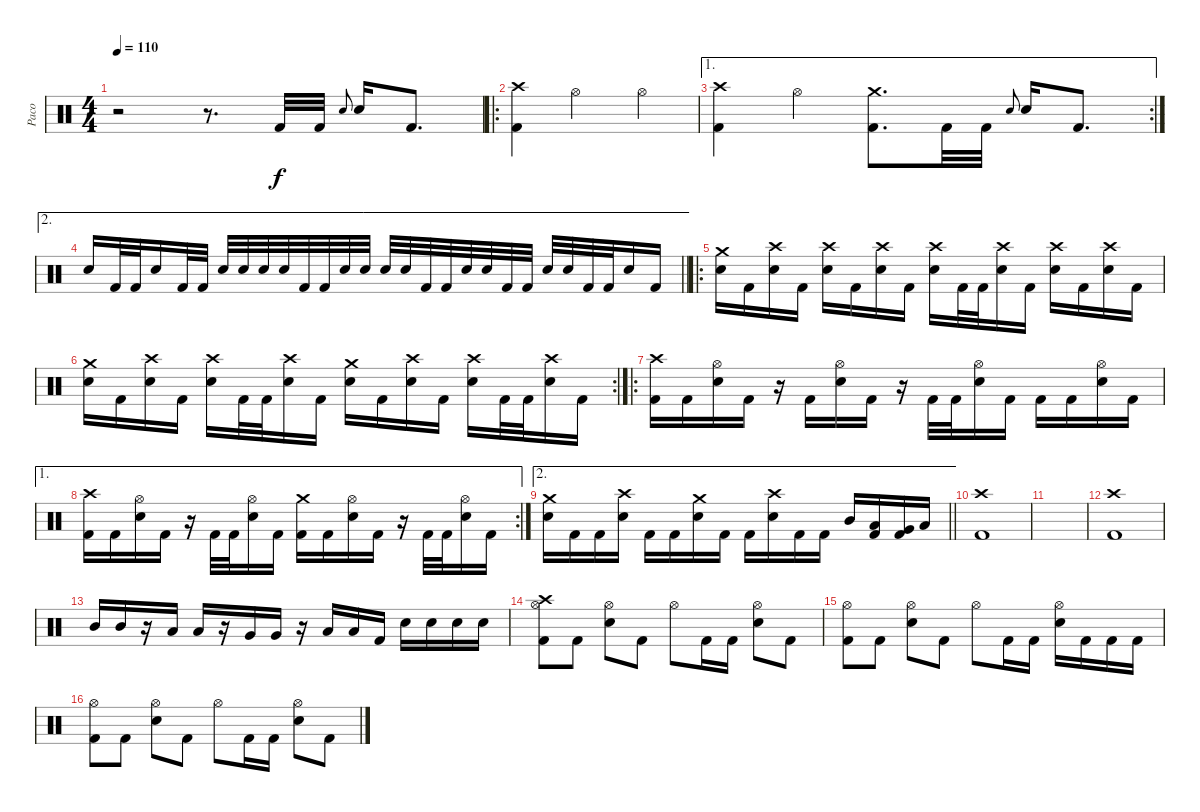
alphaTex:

\track ("Paco" "Paco") {instrument percussion}
\staff {score}
\articulation defaults
\ts (4 4)
\tempo 110
\clef neutral
\ks c
r.2{dy f} r.8{d} "Kick (hit) 2".32 "Kick (hit) 2".32 "Electric Snare (hit)".8{gr onbeat} "Electric Snare (hit)".16 "Kick (hit) 2".8{d} |
\ro
("Crash high (hit)" "Kick (hit) 2").4 "Hi-Hat (open)".2 "Hi-Hat (open)".4 |
\ae 1
\rc 2
("Crash high (hit)" "Kick (hit) 2").4 "Hi-Hat (open)".4 ("Crash medium (hit)" "Kick (hit) 2").8{d} "Kick (hit) 2".32 "Kick (hit) 2".32 "Electric Snare (hit)".8{gr onbeat} "Electric Snare (hit)".16 "Kick (hit) 2".8{d} |
\ae 2
\barLineRight lightlight "Electric Snare (hit)".16 "Kick (hit) 2".32 "Kick (hit) 2".32 "Electric Snare (hit)".16 "Kick (hit) 2".32 "Kick (hit) 2".32 "Electric Snare (hit)".32 "Electric Snare (hit)".32 "Electric Snare (hit)".32 "Electric Snare (hit)".32 "Kick (hit) 2".32 "Kick (hit) 2".32 "Electric Snare (hit)".32 "Electric Snare (hit)".32 "Electric Snare (hit)".32 "Electric Snare (hit)".32 "Kick (hit) 2".32 "Kick (hit) 2".32 "Electric Snare (hit)".32 "Electric Snare (hit)".32 "Kick (hit) 2".32 "Kick (hit) 2".32 "Electric Snare (hit)".32 "Electric Snare (hit)".32 "Kick (hit) 2".32 "Kick (hit) 2".32 "Electric Snare (hit)".16 "Kick (hit) 2".16
|
\ro
("Crash medium (hit)" "Electric Snare (hit)").16 "Kick (hit) 2".16 ("Crash high (hit)" "Electric Snare (hit)").16 "Kick (hit) 2".16 ("Crash high (hit)" "Electric Snare (hit)").16 "Kick (hit) 2".16 ("Crash high (hit)" "Electric Snare (hit)").16 "Kick (hit) 2".16 ("Crash high (hit)" "Electric Snare (hit)").16 "Kick (hit) 2".32 "Kick (hit) 2".32 ("Crash high (hit)" "Electric Snare (hit)").16 "Kick (hit) 2".16 ("Crash high (hit)" "Electric Snare (hit)").16 "Kick (hit) 2".16 ("Crash high (hit)" "Electric Snare (hit)").16 "Kick (hit) 2".16 |
\rc 2
("Crash medium (hit)" "Electric Snare (hit)").16 "Kick (hit) 2".16 ("Crash high (hit)" "Electric Snare (hit)").16 "Kick (hit) 2".16 ("Crash high (hit)" "Electric Snare (hit)").16 "Kick (hit) 2".32 "Kick (hit) 2".32 ("Crash high (hit)" "Electric Snare (hit)").16 "Kick (hit) 2".16 ("Crash medium (hit)" "Electric Snare (hit)").16 "Kick (hit) 2".16 ("Crash high (hit)" "Electric Snare (hit)").16 "Kick (hit) 2".16 ("Crash high (hit)" "Electric Snare (hit)").16 "Kick (hit) 2".32 "Kick (hit) 2".32 ("Crash high (hit)" "Electric Snare (hit)").16 "Kick (hit) 2".16 |
\ro
("Crash high (hit)" "Kick (hit) 2").16 "Kick (hit) 2".16 ("Hi-Hat (open)" "Electric Snare (hit)").16 "Kick (hit) 2".16 r.16 "Kick (hit) 2".16 ("Hi-Hat (open)" "Electric Snare (hit)").16 "Kick (hit) 2".16 r.16 "Kick (hit) 2".32 "Kick (hit) 2".32 ("Hi-Hat (open)" "Electric Snare (hit)").16 "Kick (hit) 2".16 "Kick (hit) 2".16 "Kick (hit) 2".16 ("Hi-Hat (open)" "Electric Snare (hit)").16 "Kick (hit) 2".16 |
\ae 1
\rc 2
("Crash high (hit)" "Kick (hit) 2").16 "Kick (hit) 2".16 ("Hi-Hat (open)" "Electric Snare (hit)").16 "Kick (hit) 2".16 r.16 "Kick (hit) 2".32 "Kick (hit) 2".32 ("Hi-Hat (open)" "Electric Snare (hit)").16 "Kick (hit) 2".16 ("Crash medium (hit)" "Kick (hit) 2").16 "Kick (hit) 2".16 ("Hi-Hat (open)" "Electric Snare (hit)").16 "Kick (hit) 2".16 r.16 "Kick (hit) 2".32 "Kick (hit) 2".32 ("Hi-Hat (open)" "Electric Snare (hit)").16 "Kick (hit) 2".16 |
\ae 2
\barLineRight lightlight
("Crash medium (hit)" "Electric Snare (hit)").16 "Kick (hit) 2".16 "Kick (hit) 2".16 ("Crash high (hit)" "Electric Snare (hit)").16 "Kick (hit) 2".16 "Kick (hit) 2".16 ("Crash medium (hit)" "Electric Snare (hit)").16 "Kick (hit) 2".16 "Kick (hit) 2".16 ("Crash high (hit)" "Electric Snare (hit)").16 "Kick (hit) 2".16 "Kick (hit) 2".16 "Mid Tom (hit)".16 ("Low Tom (hit)" "Kick (hit) 2").16 ("Very Low Tom (hit)" "Kick (hit) 2").16 "Low Floor Tom (hit)".16 |
("Crash high (hit)" "Kick (hit) 2").1 |
|
("Crash high (hit)" "Kick (hit) 2").1 |
"Mid Tom (hit)".16 "Mid Tom (hit)".16 r.16 "Low Tom (hit)".16 "Low Tom (hit)".16 r.16 "Very Low Tom (hit)".16 "Very Low Tom (hit)".16 r.16 "Low Floor Tom (hit)".16 "Low Floor Tom (hit)".16 "Kick (hit) 2".16 "Electric Snare (hit)".16 "Electric Snare (hit)".16 "Electric Snare (hit)".16 "Electric Snare (hit)".16 |
("Hi-Hat (open)" "Kick (hit) 2" "Crash high (hit)").8 "Kick (hit) 2".8 ("Hi-Hat (open)" "Electric Snare (hit)").8 "Kick (hit) 2".8 "Hi-Hat (open)".8 "Kick (hit) 2".16 "Kick (hit) 2".16 ("Hi-Hat (open)" "Electric Snare (hit)").8 "Kick (hit) 2".8 |
("Hi-Hat (open)" "Kick (hit) 2").8 "Kick (hit) 2".8 ("Hi-Hat (open)" "Electric Snare (hit)").8 "Kick (hit) 2".8 "Hi-Hat (open)".8 "Kick (hit) 2".16 "Kick (hit) 2".16 ("Hi-Hat (open)" "Electric Snare (hit)").16 "Kick (hit) 2".16 "Kick (hit) 2".16 "Kick (hit) 2".16 |
("Hi-Hat (open)" "Kick (hit) 2").8 "Kick (hit) 2".8 ("Hi-Hat (open)" "Electric Snare (hit)").8 "Kick (hit) 2".8 "Hi-Hat (open)".8 "Kick (hit) 2".16 "Kick (hit) 2".16 ("Hi-Hat (open)" "Electric Snare (hit)").8 "Kick (hit) 2".8
